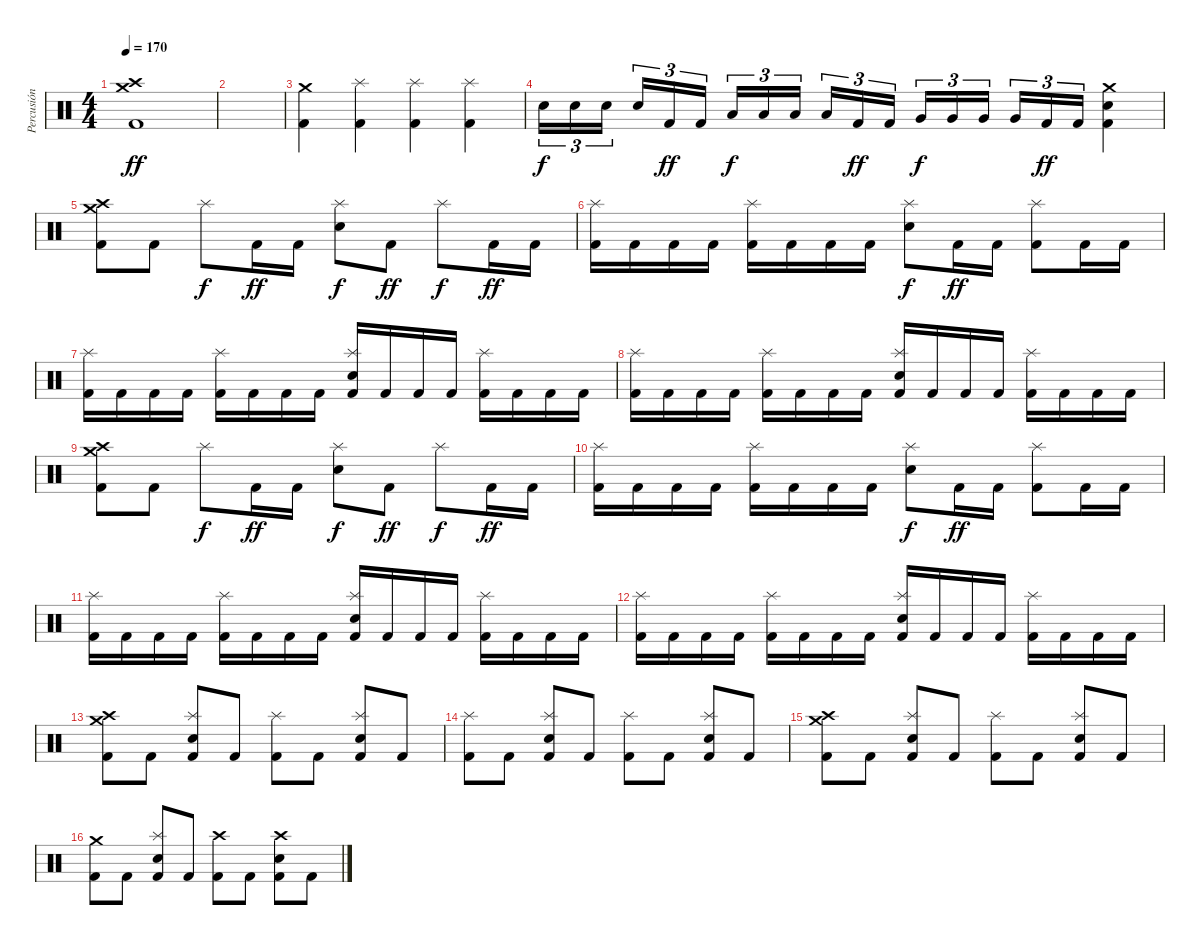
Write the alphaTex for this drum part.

\track ("Percusión" "Percusión") {instrument percussion}
\staff {score}
\articulation defaults
\ts (4 4)
\tempo 170
\clef neutral
\ks c
("Crash medium (hit)" "Crash high (hit)" "Kick (hit) 2").1{dy ff} |
|
("Crash medium (hit)" "Kick (hit) 2").4 ("Splash (hit)" "Kick (hit) 2").4 ("Splash (hit)" "Kick (hit) 2").4 ("Splash (hit)" "Kick (hit) 2").4 |
"Snare (hit) 2".16{tu (3 2) dy f} "Snare (hit) 2".16{tu (3 2)} "Snare (hit) 2".16{tu (3 2) beam splitsecondary} "Snare (hit) 2".16{tu (3 2)} "Kick (hit) 2".16{tu (3 2) dy ff} "Kick (hit) 2".16{tu (3 2)} "Low Tom (hit)".16{tu (3 2) dy f} "Low Tom (hit)".16{tu (3 2)} "Low Tom (hit)".16{tu (3 2) beam splitsecondary} "Low Tom (hit)".16{tu (3 2)} "Kick (hit) 2".16{tu (3 2) dy ff} "Kick (hit) 2".16{tu (3 2)} "Very Low Tom (hit)".16{tu (3 2) dy f} "Very Low Tom (hit)".16{tu (3 2)} "Very Low Tom (hit)".16{tu (3 2) beam splitsecondary} "Very Low Tom (hit)".16{tu (3 2)} "Kick (hit) 2".16{tu (3 2) dy ff} "Kick (hit) 2".16{tu (3 2)} ("Crash medium (hit)" "Snare (hit) 2" "Kick (hit) 2").4 |
("Crash medium (hit)" "Crash high (hit)" "Kick (hit) 2").8 "Kick (hit) 2".8 "Splash (hit)".8{dy f} "Kick (hit) 2".16{dy ff} "Kick (hit) 2".16 ("Splash (hit)" "Snare (hit) 2").8{dy f} "Kick (hit) 2".8{dy ff} "Splash (hit)".8{dy f} "Kick (hit) 2".16{dy ff} "Kick (hit) 2".16 |
("Splash (hit)" "Kick (hit) 2").16 "Kick (hit) 2".16 "Kick (hit) 2".16 "Kick (hit) 2".16 ("Splash (hit)" "Kick (hit) 2").16 "Kick (hit) 2".16 "Kick (hit) 2".16 "Kick (hit) 2".16 ("Splash (hit)" "Snare (hit) 2").8{dy f} "Kick (hit) 2".16{dy ff} "Kick (hit) 2".16 ("Splash (hit)" "Kick (hit) 2").8 "Kick (hit) 2".16 "Kick (hit) 2".16 |
("Splash (hit)" "Kick (hit) 2").16 "Kick (hit) 2".16 "Kick (hit) 2".16 "Kick (hit) 2".16 ("Splash (hit)" "Kick (hit) 2").16 "Kick (hit) 2".16 "Kick (hit) 2".16 "Kick (hit) 2".16 ("Splash (hit)" "Snare (hit) 2" "Kick (hit) 2").16 "Kick (hit) 2".16 "Kick (hit) 2".16 "Kick (hit) 2".16 ("Splash (hit)" "Kick (hit) 2").16 "Kick (hit) 2".16 "Kick (hit) 2".16 "Kick (hit) 2".16 |
("Splash (hit)" "Kick (hit) 2").16 "Kick (hit) 2".16 "Kick (hit) 2".16 "Kick (hit) 2".16 ("Splash (hit)" "Kick (hit) 2").16 "Kick (hit) 2".16 "Kick (hit) 2".16 "Kick (hit) 2".16 ("Splash (hit)" "Snare (hit) 2" "Kick (hit) 2").16 "Kick (hit) 2".16 "Kick (hit) 2".16 "Kick (hit) 2".16 ("Splash (hit)" "Kick (hit) 2").16 "Kick (hit) 2".16 "Kick (hit) 2".16 "Kick (hit) 2".16 |
("Crash medium (hit)" "Crash high (hit)" "Kick (hit) 2").8 "Kick (hit) 2".8 "Splash (hit)".8{dy f} "Kick (hit) 2".16{dy ff} "Kick (hit) 2".16 ("Splash (hit)" "Snare (hit) 2").8{dy f} "Kick (hit) 2".8{dy ff} "Splash (hit)".8{dy f} "Kick (hit) 2".16{dy ff} "Kick (hit) 2".16 |
("Splash (hit)" "Kick (hit) 2").16 "Kick (hit) 2".16 "Kick (hit) 2".16 "Kick (hit) 2".16 ("Splash (hit)" "Kick (hit) 2").16 "Kick (hit) 2".16 "Kick (hit) 2".16 "Kick (hit) 2".16 ("Splash (hit)" "Snare (hit) 2").8{dy f} "Kick (hit) 2".16{dy ff} "Kick (hit) 2".16 ("Splash (hit)" "Kick (hit) 2").8 "Kick (hit) 2".16 "Kick (hit) 2".16 |
("Splash (hit)" "Kick (hit) 2").16 "Kick (hit) 2".16 "Kick (hit) 2".16 "Kick (hit) 2".16 ("Splash (hit)" "Kick (hit) 2").16 "Kick (hit) 2".16 "Kick (hit) 2".16 "Kick (hit) 2".16 ("Splash (hit)" "Snare (hit) 2" "Kick (hit) 2").16 "Kick (hit) 2".16 "Kick (hit) 2".16 "Kick (hit) 2".16 ("Splash (hit)" "Kick (hit) 2").16 "Kick (hit) 2".16 "Kick (hit) 2".16 "Kick (hit) 2".16 |
("Splash (hit)" "Kick (hit) 2").16 "Kick (hit) 2".16 "Kick (hit) 2".16 "Kick (hit) 2".16 ("Splash (hit)" "Kick (hit) 2").16 "Kick (hit) 2".16 "Kick (hit) 2".16 "Kick (hit) 2".16 ("Splash (hit)" "Snare (hit) 2" "Kick (hit) 2").16 "Kick (hit) 2".16 "Kick (hit) 2".16 "Kick (hit) 2".16 ("Splash (hit)" "Kick (hit) 2").16 "Kick (hit) 2".16 "Kick (hit) 2".16 "Kick (hit) 2".16 |
("Crash medium (hit)" "Crash high (hit)" "Kick (hit) 2").8 "Kick (hit) 2".8 ("Splash (hit)" "Snare (hit) 2" "Kick (hit) 2").8 "Kick (hit) 2".8 ("Splash (hit)" "Kick (hit) 2").8 "Kick (hit) 2".8 ("Splash (hit)" "Snare (hit) 2" "Kick (hit) 2").8 "Kick (hit) 2".8 |
("Splash (hit)" "Kick (hit) 2").8 "Kick (hit) 2".8 ("Splash (hit)" "Snare (hit) 2" "Kick (hit) 2").8 "Kick (hit) 2".8 ("Splash (hit)" "Kick (hit) 2").8 "Kick (hit) 2".8 ("Splash (hit)" "Snare (hit) 2" "Kick (hit) 2").8 "Kick (hit) 2".8 |
("Crash medium (hit)" "Crash high (hit)" "Kick (hit) 2").8 "Kick (hit) 2".8 ("Splash (hit)" "Snare (hit) 2" "Kick (hit) 2").8 "Kick (hit) 2".8 ("Splash (hit)" "Kick (hit) 2").8 "Kick (hit) 2".8 ("Splash (hit)" "Snare (hit) 2" "Kick (hit) 2").8 "Kick (hit) 2".8 |
("Crash medium (hit)" "Kick (hit) 2").8 "Kick (hit) 2".8 ("Splash (hit)" "Snare (hit) 2" "Kick (hit) 2").8 "Kick (hit) 2".8 ("Crash high (hit)" "Kick (hit) 2").8 "Kick (hit) 2".8 ("Crash high (hit)" "Snare (hit) 2" "Kick (hit) 2").8 "Kick (hit) 2".8
